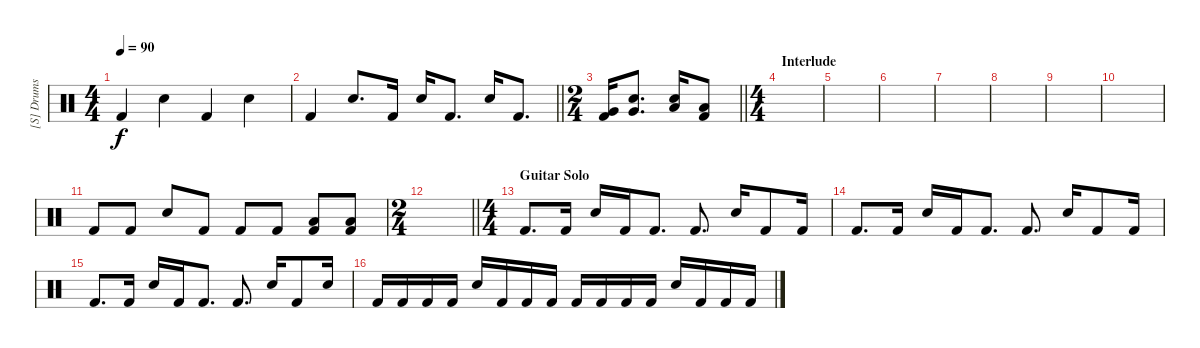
\track ("[S] Drums I (Stewart)" "[S] Drums ") {instrument percussion}
\staff {score}
\articulation defaults
\ts (4 4)
\tempo 90
\clef neutral
\ks c "Kick (hit) 2".4{dy f} "Snare (hit) 2".4 "Kick (hit) 2".4 "Snare (hit) 2".4
|
\barLineRight lightlight "Kick (hit) 2".4 "Snare (hit) 2".8{d} "Kick (hit) 2".16 "Snare (hit) 2".16 "Kick (hit) 2".8{d} "Snare (hit) 2".16 "Kick (hit) 2".8{d}
|
\ts (2 4)
\barLineRight lightlight
("Kick (hit) 2" "Very Low Tom (hit)").16 ("Snare (hit) 2" "Very Low Tom (hit)").8{d} ("Snare (hit) 2" "Low Floor Tom (hit)").16 ("Kick (hit) 2" "Low Floor Tom (hit)").8 |
\ts (4 4)
\section ("" "Interlude")
|
|
|
|
|
|
|
"Kick (hit) 2".8 "Kick (hit) 2".8 "Snare (hit) 2".8 "Kick (hit) 2".8 "Kick (hit) 2".8 "Kick (hit) 2".8 ("Kick (hit) 2" "Low Tom (hit)").8 ("Kick (hit) 2" "Low Tom (hit)").8 |
\ts (2 4)
\barLineRight lightlight
|
\ts (4 4)
\section ("" "Guitar Solo ")
"Kick (hit) 2".8{d} "Kick (hit) 2".16 "Snare (hit) 2".16 "Kick (hit) 2".16 "Kick (hit) 2".8{d} "Kick (hit) 2".8{d} "Snare (hit) 2".16 "Kick (hit) 2".8 "Kick (hit) 2".16 |
"Kick (hit) 2".8{d} "Kick (hit) 2".16 "Snare (hit) 2".16 "Kick (hit) 2".16 "Kick (hit) 2".8{d} "Kick (hit) 2".8{d} "Snare (hit) 2".16 "Kick (hit) 2".8 "Kick (hit) 2".16 |
"Kick (hit) 2".8{d} "Kick (hit) 2".16 "Snare (hit) 2".16 "Kick (hit) 2".16 "Kick (hit) 2".8{d} "Kick (hit) 2".8{d} "Snare (hit) 2".16 "Kick (hit) 2".8 "Snare (hit) 2".16 |
"Kick (hit) 2".16 "Kick (hit) 2".16 "Kick (hit) 2".16 "Kick (hit) 2".16 "Snare (hit) 2".16 "Kick (hit) 2".16 "Kick (hit) 2".16 "Kick (hit) 2".16 "Kick (hit) 2".16 "Kick (hit) 2".16 "Kick (hit) 2".16 "Kick (hit) 2".16 "Snare (hit) 2".16 "Kick (hit) 2".16 "Kick (hit) 2".16 "Kick (hit) 2".16
